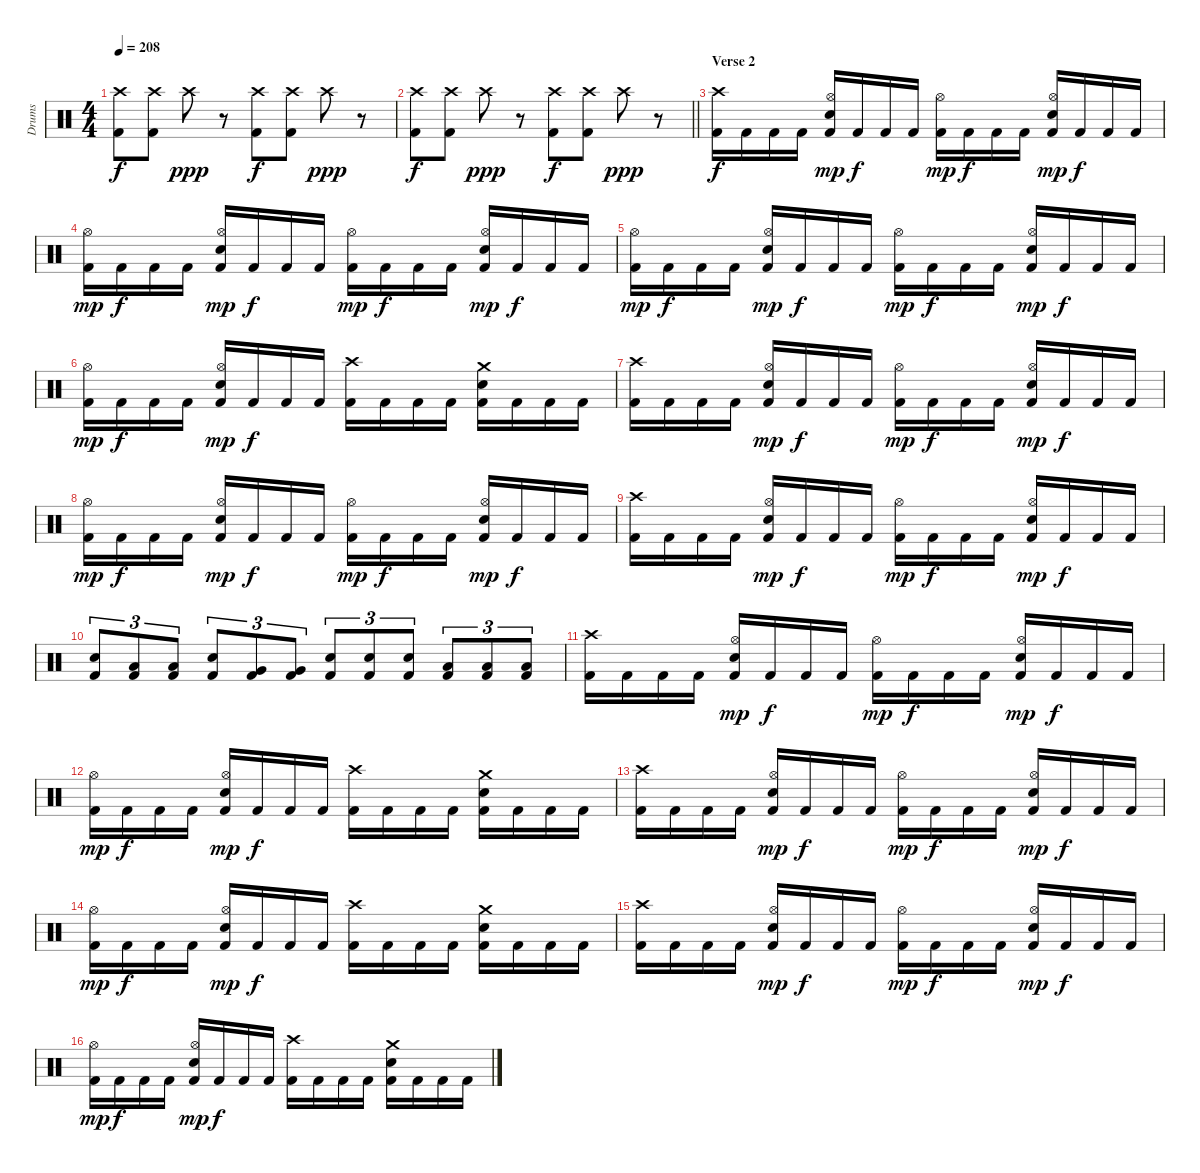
\track ("Drums" "Drums") {instrument percussion}
\staff {score}
\articulation defaults
\ts (4 4)
\tempo 208
\clef neutral
\ks c
("Crash high (hit)" "Kick (hit) 2").8{dy f} ("Crash high (hit)" "Kick (hit) 2").8 "Crash high (hit)".8{dy ppp} r.8 ("Crash high (hit)" "Kick (hit) 2").8{dy f} ("Crash high (hit)" "Kick (hit) 2").8 "Crash high (hit)".8{dy ppp} r.8 |
\barLineRight lightlight
("Crash high (hit)" "Kick (hit) 2").8{dy f} ("Crash high (hit)" "Kick (hit) 2").8 "Crash high (hit)".8{dy ppp} r.8 ("Crash high (hit)" "Kick (hit) 2").8{dy f} ("Crash high (hit)" "Kick (hit) 2").8 "Crash high (hit)".8{dy ppp} r.8 |
\section ("" "Verse 2")
("Crash high (hit)" "Kick (hit) 2").16{dy f} "Kick (hit) 2".16 "Kick (hit) 2".16 "Kick (hit) 2".16 ("Hi-Hat (open)" "Electric Snare (hit)" "Kick (hit) 2").16{dy mp} "Kick (hit) 2".16{dy f} "Kick (hit) 2".16 "Kick (hit) 2".16 ("Hi-Hat (open)" "Kick (hit) 2").16{dy mp} "Kick (hit) 2".16{dy f} "Kick (hit) 2".16 "Kick (hit) 2".16 ("Hi-Hat (open)" "Electric Snare (hit)" "Kick (hit) 2").16{dy mp} "Kick (hit) 2".16{dy f} "Kick (hit) 2".16 "Kick (hit) 2".16 |
("Hi-Hat (open)" "Kick (hit) 2").16{dy mp} "Kick (hit) 2".16{dy f} "Kick (hit) 2".16 "Kick (hit) 2".16 ("Hi-Hat (open)" "Electric Snare (hit)" "Kick (hit) 2").16{dy mp} "Kick (hit) 2".16{dy f} "Kick (hit) 2".16 "Kick (hit) 2".16 ("Hi-Hat (open)" "Kick (hit) 2").16{dy mp} "Kick (hit) 2".16{dy f} "Kick (hit) 2".16 "Kick (hit) 2".16 ("Hi-Hat (open)" "Electric Snare (hit)" "Kick (hit) 2").16{dy mp} "Kick (hit) 2".16{dy f} "Kick (hit) 2".16 "Kick (hit) 2".16 |
("Hi-Hat (open)" "Kick (hit) 2").16{dy mp} "Kick (hit) 2".16{dy f} "Kick (hit) 2".16 "Kick (hit) 2".16 ("Hi-Hat (open)" "Electric Snare (hit)" "Kick (hit) 2").16{dy mp} "Kick (hit) 2".16{dy f} "Kick (hit) 2".16 "Kick (hit) 2".16 ("Hi-Hat (open)" "Kick (hit) 2").16{dy mp} "Kick (hit) 2".16{dy f} "Kick (hit) 2".16 "Kick (hit) 2".16 ("Hi-Hat (open)" "Electric Snare (hit)" "Kick (hit) 2").16{dy mp} "Kick (hit) 2".16{dy f} "Kick (hit) 2".16 "Kick (hit) 2".16 |
("Hi-Hat (open)" "Kick (hit) 2").16{dy mp} "Kick (hit) 2".16{dy f} "Kick (hit) 2".16 "Kick (hit) 2".16 ("Hi-Hat (open)" "Electric Snare (hit)" "Kick (hit) 2").16{dy mp} "Kick (hit) 2".16{dy f} "Kick (hit) 2".16 "Kick (hit) 2".16 ("Crash high (hit)" "Kick (hit) 2").16 "Kick (hit) 2".16 "Kick (hit) 2".16 "Kick (hit) 2".16 ("Crash medium (hit)" "Electric Snare (hit)" "Kick (hit) 2").16 "Kick (hit) 2".16 "Kick (hit) 2".16 "Kick (hit) 2".16 |
("Crash high (hit)" "Kick (hit) 2").16 "Kick (hit) 2".16 "Kick (hit) 2".16 "Kick (hit) 2".16 ("Hi-Hat (open)" "Electric Snare (hit)" "Kick (hit) 2").16{dy mp} "Kick (hit) 2".16{dy f} "Kick (hit) 2".16 "Kick (hit) 2".16 ("Hi-Hat (open)" "Kick (hit) 2").16{dy mp} "Kick (hit) 2".16{dy f} "Kick (hit) 2".16 "Kick (hit) 2".16 ("Hi-Hat (open)" "Electric Snare (hit)" "Kick (hit) 2").16{dy mp} "Kick (hit) 2".16{dy f} "Kick (hit) 2".16 "Kick (hit) 2".16 |
("Hi-Hat (open)" "Kick (hit) 2").16{dy mp} "Kick (hit) 2".16{dy f} "Kick (hit) 2".16 "Kick (hit) 2".16 ("Hi-Hat (open)" "Electric Snare (hit)" "Kick (hit) 2").16{dy mp} "Kick (hit) 2".16{dy f} "Kick (hit) 2".16 "Kick (hit) 2".16 ("Hi-Hat (open)" "Kick (hit) 2").16{dy mp} "Kick (hit) 2".16{dy f} "Kick (hit) 2".16 "Kick (hit) 2".16 ("Hi-Hat (open)" "Electric Snare (hit)" "Kick (hit) 2").16{dy mp} "Kick (hit) 2".16{dy f} "Kick (hit) 2".16 "Kick (hit) 2".16 |
("Crash high (hit)" "Kick (hit) 2").16 "Kick (hit) 2".16 "Kick (hit) 2".16 "Kick (hit) 2".16 ("Hi-Hat (open)" "Electric Snare (hit)" "Kick (hit) 2").16{dy mp} "Kick (hit) 2".16{dy f} "Kick (hit) 2".16 "Kick (hit) 2".16 ("Hi-Hat (open)" "Kick (hit) 2").16{dy mp} "Kick (hit) 2".16{dy f} "Kick (hit) 2".16 "Kick (hit) 2".16 ("Hi-Hat (open)" "Electric Snare (hit)" "Kick (hit) 2").16{dy mp} "Kick (hit) 2".16{dy f} "Kick (hit) 2".16 "Kick (hit) 2".16 |
("Electric Snare (hit)" "Kick (hit) 2").8{tu (3 2)} ("Low Tom (hit)" "Kick (hit) 2").8{tu (3 2)} ("Low Tom (hit)" "Kick (hit) 2").8{tu (3 2)} ("Electric Snare (hit)" "Kick (hit) 2").8{tu (3 2)} ("Very Low Tom (hit)" "Kick (hit) 2").8{tu (3 2)} ("Very Low Tom (hit)" "Kick (hit) 2").8{tu (3 2)} ("Electric Snare (hit)" "Kick (hit) 2").8{tu (3 2)} ("Electric Snare (hit)" "Kick (hit) 2").8{tu (3 2)} ("Electric Snare (hit)" "Kick (hit) 2").8{tu (3 2)} ("Low Floor Tom (hit)" "Kick (hit) 2").8{tu (3 2)} ("Low Floor Tom (hit)" "Kick (hit) 2").8{tu (3 2)} ("Low Floor Tom (hit)" "Kick (hit) 2").8{tu (3 2)} |
("Crash high (hit)" "Kick (hit) 2").16 "Kick (hit) 2".16 "Kick (hit) 2".16 "Kick (hit) 2".16 ("Hi-Hat (open)" "Electric Snare (hit)" "Kick (hit) 2").16{dy mp} "Kick (hit) 2".16{dy f} "Kick (hit) 2".16 "Kick (hit) 2".16 ("Hi-Hat (open)" "Kick (hit) 2").16{dy mp} "Kick (hit) 2".16{dy f} "Kick (hit) 2".16 "Kick (hit) 2".16 ("Hi-Hat (open)" "Electric Snare (hit)" "Kick (hit) 2").16{dy mp} "Kick (hit) 2".16{dy f} "Kick (hit) 2".16 "Kick (hit) 2".16 |
("Hi-Hat (open)" "Kick (hit) 2").16{dy mp} "Kick (hit) 2".16{dy f} "Kick (hit) 2".16 "Kick (hit) 2".16 ("Hi-Hat (open)" "Electric Snare (hit)" "Kick (hit) 2").16{dy mp} "Kick (hit) 2".16{dy f} "Kick (hit) 2".16 "Kick (hit) 2".16 ("Crash high (hit)" "Kick (hit) 2").16 "Kick (hit) 2".16 "Kick (hit) 2".16 "Kick (hit) 2".16 ("Crash medium (hit)" "Electric Snare (hit)" "Kick (hit) 2").16 "Kick (hit) 2".16 "Kick (hit) 2".16 "Kick (hit) 2".16 |
("Crash high (hit)" "Kick (hit) 2").16 "Kick (hit) 2".16 "Kick (hit) 2".16 "Kick (hit) 2".16 ("Hi-Hat (open)" "Electric Snare (hit)" "Kick (hit) 2").16{dy mp} "Kick (hit) 2".16{dy f} "Kick (hit) 2".16 "Kick (hit) 2".16 ("Hi-Hat (open)" "Kick (hit) 2").16{dy mp} "Kick (hit) 2".16{dy f} "Kick (hit) 2".16 "Kick (hit) 2".16 ("Hi-Hat (open)" "Electric Snare (hit)" "Kick (hit) 2").16{dy mp} "Kick (hit) 2".16{dy f} "Kick (hit) 2".16 "Kick (hit) 2".16 |
("Hi-Hat (open)" "Kick (hit) 2").16{dy mp} "Kick (hit) 2".16{dy f} "Kick (hit) 2".16 "Kick (hit) 2".16 ("Hi-Hat (open)" "Electric Snare (hit)" "Kick (hit) 2").16{dy mp} "Kick (hit) 2".16{dy f} "Kick (hit) 2".16 "Kick (hit) 2".16 ("Crash high (hit)" "Kick (hit) 2").16 "Kick (hit) 2".16 "Kick (hit) 2".16 "Kick (hit) 2".16 ("Crash medium (hit)" "Electric Snare (hit)" "Kick (hit) 2").16 "Kick (hit) 2".16 "Kick (hit) 2".16 "Kick (hit) 2".16 |
("Crash high (hit)" "Kick (hit) 2").16 "Kick (hit) 2".16 "Kick (hit) 2".16 "Kick (hit) 2".16 ("Hi-Hat (open)" "Electric Snare (hit)" "Kick (hit) 2").16{dy mp} "Kick (hit) 2".16{dy f} "Kick (hit) 2".16 "Kick (hit) 2".16 ("Hi-Hat (open)" "Kick (hit) 2").16{dy mp} "Kick (hit) 2".16{dy f} "Kick (hit) 2".16 "Kick (hit) 2".16 ("Hi-Hat (open)" "Electric Snare (hit)" "Kick (hit) 2").16{dy mp} "Kick (hit) 2".16{dy f} "Kick (hit) 2".16 "Kick (hit) 2".16 |
("Hi-Hat (open)" "Kick (hit) 2").16{dy mp} "Kick (hit) 2".16{dy f} "Kick (hit) 2".16 "Kick (hit) 2".16 ("Hi-Hat (open)" "Electric Snare (hit)" "Kick (hit) 2").16{dy mp} "Kick (hit) 2".16{dy f} "Kick (hit) 2".16 "Kick (hit) 2".16 ("Crash high (hit)" "Kick (hit) 2").16 "Kick (hit) 2".16 "Kick (hit) 2".16 "Kick (hit) 2".16 ("Crash medium (hit)" "Electric Snare (hit)" "Kick (hit) 2").16 "Kick (hit) 2".16 "Kick (hit) 2".16 "Kick (hit) 2".16
